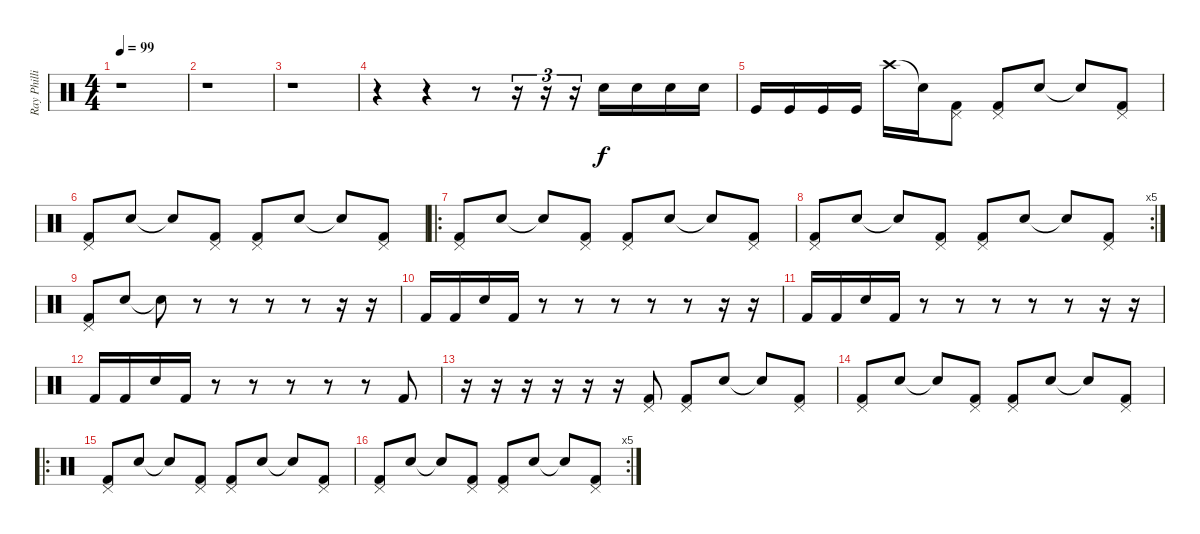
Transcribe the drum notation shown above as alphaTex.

\track ("Ray Phillips" "Ray Philli") {instrument percussion}
\staff {score}
\articulation defaults
\ts (4 4)
\tempo 99
\clef neutral
\ks c
r.1{dy f} |
r.1 |
r.1 |
r.4 r.4 r.8 r.16{tu (3 2)} r.16{tu (3 2)} r.16{tu (3 2)} "Metronome (bell)".16 "Metronome (bell)".16 "Metronome (bell)".16 "Metronome (bell)".16 |
"Kick (hit)".16 "Kick (hit)".16 "Kick (hit)".16 "Kick (hit)".16 "Crash high (hit)".16 "Snare (hit)"{t}.16 ("Kick (hit) 2" "Pedal Hi-Hat (hit)").8 ("Kick (hit) 2" "Pedal Hi-Hat (hit)").8 "Snare (hit) 2".8 "Snare (hit)"{t}.8 ("Kick (hit) 2" "Pedal Hi-Hat (hit)").8 |
("Kick (hit) 2" "Pedal Hi-Hat (hit)").8 "Snare (hit) 2".8 "Snare (hit)"{t}.8 ("Kick (hit) 2" "Pedal Hi-Hat (hit)").8 ("Kick (hit) 2" "Pedal Hi-Hat (hit)").8 "Snare (hit) 2".8 "Snare (hit)"{t}.8 ("Kick (hit) 2" "Pedal Hi-Hat (hit)").8 |
\ro
("Kick (hit) 2" "Pedal Hi-Hat (hit)").8 "Snare (hit) 2".8 "Snare (hit)"{t}.8 ("Kick (hit) 2" "Pedal Hi-Hat (hit)").8 ("Kick (hit) 2" "Pedal Hi-Hat (hit)").8 "Snare (hit) 2".8 "Snare (hit)"{t}.8 ("Kick (hit) 2" "Pedal Hi-Hat (hit)").8 |
\rc 5
("Kick (hit) 2" "Pedal Hi-Hat (hit)").8 "Snare (hit) 2".8 "Snare (hit)"{t}.8 ("Kick (hit) 2" "Pedal Hi-Hat (hit)").8 ("Kick (hit) 2" "Pedal Hi-Hat (hit)").8 "Snare (hit) 2".8 "Snare (hit)"{t}.8 ("Kick (hit) 2" "Pedal Hi-Hat (hit)").8 |
("Kick (hit) 2" "Pedal Hi-Hat (hit)").8 "Snare (hit) 2".8 "Snare (hit)"{t}.8 r.8 r.8 r.8 r.8 r.16 r.16 |
"Kick (hit) 2".16 "Kick (hit) 2".16 "Snare (hit) 2".16 "Kick (hit) 2".16 r.8 r.8 r.8 r.8 r.8 r.16 r.16 |
"Kick (hit) 2".16 "Kick (hit) 2".16 "Snare (hit) 2".16 "Kick (hit) 2".16 r.8 r.8 r.8 r.8 r.8 r.16 r.16 |
"Kick (hit) 2".16 "Kick (hit) 2".16 "Snare (hit) 2".16 "Kick (hit) 2".16 r.8 r.8 r.8 r.8 r.8 "Kick (hit) 2".8 |
r.16 r.16 r.16 r.16 r.16 r.16 ("Kick (hit) 2" "Pedal Hi-Hat (hit)").8 ("Kick (hit) 2" "Pedal Hi-Hat (hit)").8 "Snare (hit) 2".8 "Snare (hit)"{t}.8 ("Kick (hit) 2" "Pedal Hi-Hat (hit)").8 |
("Kick (hit) 2" "Pedal Hi-Hat (hit)").8 "Snare (hit) 2".8 "Snare (hit)"{t}.8 ("Kick (hit) 2" "Pedal Hi-Hat (hit)").8 ("Kick (hit) 2" "Pedal Hi-Hat (hit)").8 "Snare (hit) 2".8 "Snare (hit)"{t}.8 ("Kick (hit) 2" "Pedal Hi-Hat (hit)").8 |
\ro
("Kick (hit) 2" "Pedal Hi-Hat (hit)").8 "Snare (hit) 2".8 "Snare (hit)"{t}.8 ("Kick (hit) 2" "Pedal Hi-Hat (hit)").8 ("Kick (hit) 2" "Pedal Hi-Hat (hit)").8 "Snare (hit) 2".8 "Snare (hit)"{t}.8 ("Kick (hit) 2" "Pedal Hi-Hat (hit)").8 |
\rc 5
("Kick (hit) 2" "Pedal Hi-Hat (hit)").8 "Snare (hit) 2".8 "Snare (hit)"{t}.8 ("Kick (hit) 2" "Pedal Hi-Hat (hit)").8 ("Kick (hit) 2" "Pedal Hi-Hat (hit)").8 "Snare (hit) 2".8 "Snare (hit)"{t}.8 ("Kick (hit) 2" "Pedal Hi-Hat (hit)").8
